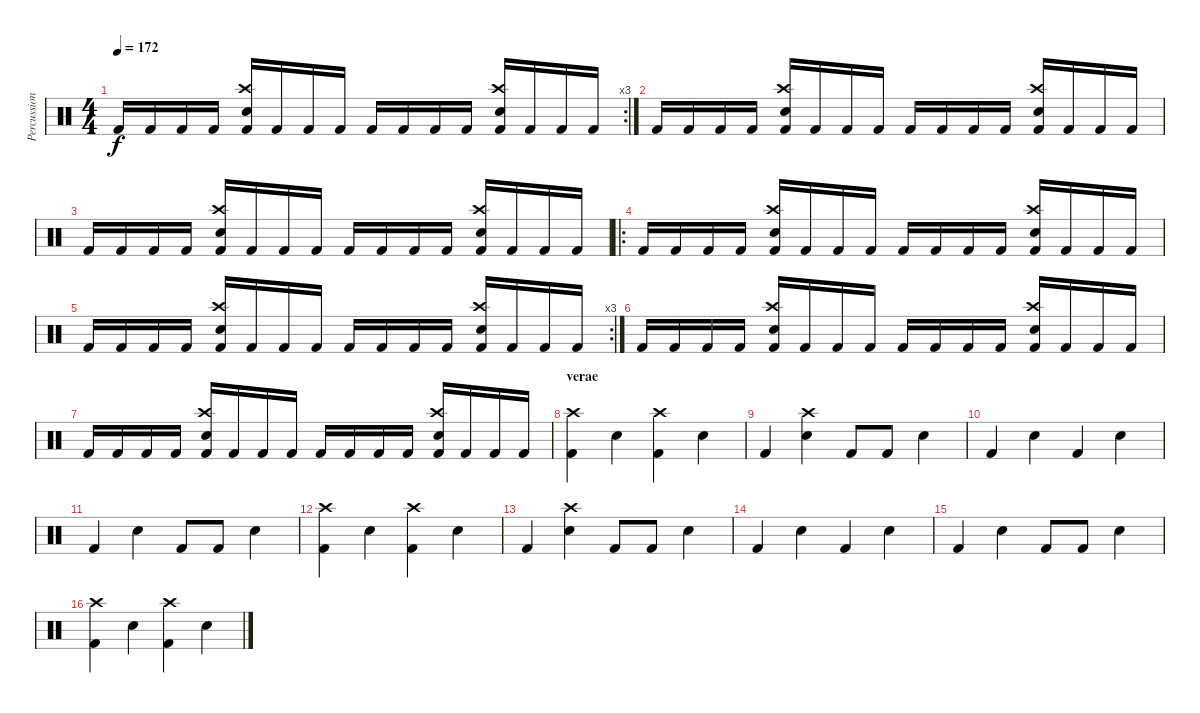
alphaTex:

\track ("Percussion" "Percussion") {instrument percussion}
\staff {score}
\articulation defaults
\rc 3
\ts (4 4)
\tempo 172
\clef neutral
\ks c "Kick (hit) 2".16{dy f} "Kick (hit) 2".16 "Kick (hit) 2".16 "Kick (hit) 2".16
("Crash high (hit)" "Electric Snare (hit)" "Kick (hit) 2").16 "Kick (hit) 2".16 "Kick (hit) 2".16 "Kick (hit) 2".16 "Kick (hit) 2".16 "Kick (hit) 2".16 "Kick (hit) 2".16 "Kick (hit) 2".16 ("Crash high (hit)" "Electric Snare (hit)" "Kick (hit) 2").16 "Kick (hit) 2".16 "Kick (hit) 2".16 "Kick (hit) 2".16 |
"Kick (hit) 2".16 "Kick (hit) 2".16 "Kick (hit) 2".16 "Kick (hit) 2".16 ("Crash high (hit)" "Electric Snare (hit)" "Kick (hit) 2").16 "Kick (hit) 2".16 "Kick (hit) 2".16 "Kick (hit) 2".16 "Kick (hit) 2".16 "Kick (hit) 2".16 "Kick (hit) 2".16 "Kick (hit) 2".16 ("Crash high (hit)" "Electric Snare (hit)" "Kick (hit) 2").16 "Kick (hit) 2".16 "Kick (hit) 2".16 "Kick (hit) 2".16 |
"Kick (hit) 2".16 "Kick (hit) 2".16 "Kick (hit) 2".16 "Kick (hit) 2".16 ("Crash high (hit)" "Electric Snare (hit)" "Kick (hit) 2").16 "Kick (hit) 2".16 "Kick (hit) 2".16 "Kick (hit) 2".16 "Kick (hit) 2".16 "Kick (hit) 2".16 "Kick (hit) 2".16 "Kick (hit) 2".16 ("Crash high (hit)" "Electric Snare (hit)" "Kick (hit) 2").16 "Kick (hit) 2".16 "Kick (hit) 2".16 "Kick (hit) 2".16 |
\ro "Kick (hit) 2".16 "Kick (hit) 2".16 "Kick (hit) 2".16 "Kick (hit) 2".16
("Crash high (hit)" "Electric Snare (hit)" "Kick (hit) 2").16 "Kick (hit) 2".16 "Kick (hit) 2".16 "Kick (hit) 2".16 "Kick (hit) 2".16 "Kick (hit) 2".16 "Kick (hit) 2".16 "Kick (hit) 2".16 ("Crash high (hit)" "Electric Snare (hit)" "Kick (hit) 2").16 "Kick (hit) 2".16 "Kick (hit) 2".16 "Kick (hit) 2".16 |
\rc 3 "Kick (hit) 2".16 "Kick (hit) 2".16 "Kick (hit) 2".16 "Kick (hit) 2".16
("Crash high (hit)" "Electric Snare (hit)" "Kick (hit) 2").16 "Kick (hit) 2".16 "Kick (hit) 2".16 "Kick (hit) 2".16 "Kick (hit) 2".16 "Kick (hit) 2".16 "Kick (hit) 2".16 "Kick (hit) 2".16 ("Crash high (hit)" "Electric Snare (hit)" "Kick (hit) 2").16 "Kick (hit) 2".16 "Kick (hit) 2".16 "Kick (hit) 2".16 |
"Kick (hit) 2".16 "Kick (hit) 2".16 "Kick (hit) 2".16 "Kick (hit) 2".16 ("Crash high (hit)" "Electric Snare (hit)" "Kick (hit) 2").16 "Kick (hit) 2".16 "Kick (hit) 2".16 "Kick (hit) 2".16 "Kick (hit) 2".16 "Kick (hit) 2".16 "Kick (hit) 2".16 "Kick (hit) 2".16 ("Crash high (hit)" "Electric Snare (hit)" "Kick (hit) 2").16 "Kick (hit) 2".16 "Kick (hit) 2".16 "Kick (hit) 2".16 |
"Kick (hit) 2".16 "Kick (hit) 2".16 "Kick (hit) 2".16 "Kick (hit) 2".16 ("Crash high (hit)" "Electric Snare (hit)" "Kick (hit) 2").16 "Kick (hit) 2".16 "Kick (hit) 2".16 "Kick (hit) 2".16 "Kick (hit) 2".16 "Kick (hit) 2".16 "Kick (hit) 2".16 "Kick (hit) 2".16 ("Crash high (hit)" "Electric Snare (hit)" "Kick (hit) 2").16 "Kick (hit) 2".16 "Kick (hit) 2".16 "Kick (hit) 2".16 |
\section ("" "verae")
("Crash high (hit)" "Kick (hit) 2").4 "Electric Snare (hit)".4 ("Crash high (hit)" "Kick (hit) 2").4 "Electric Snare (hit)".4 |
"Kick (hit) 2".4 ("Crash high (hit)" "Electric Snare (hit)").4 "Kick (hit) 2".8 "Kick (hit) 2".8 "Electric Snare (hit)".4 |
"Kick (hit) 2".4 "Electric Snare (hit)".4 "Kick (hit) 2".4 "Electric Snare (hit)".4 |
"Kick (hit) 2".4 "Electric Snare (hit)".4 "Kick (hit) 2".8 "Kick (hit) 2".8 "Electric Snare (hit)".4 |
("Crash high (hit)" "Kick (hit) 2").4 "Electric Snare (hit)".4 ("Crash high (hit)" "Kick (hit) 2").4 "Electric Snare (hit)".4 |
"Kick (hit) 2".4 ("Crash high (hit)" "Electric Snare (hit)").4 "Kick (hit) 2".8 "Kick (hit) 2".8 "Electric Snare (hit)".4 |
"Kick (hit) 2".4 "Electric Snare (hit)".4 "Kick (hit) 2".4 "Electric Snare (hit)".4 |
"Kick (hit) 2".4 "Electric Snare (hit)".4 "Kick (hit) 2".8 "Kick (hit) 2".8 "Electric Snare (hit)".4 |
("Crash high (hit)" "Kick (hit) 2").4 "Electric Snare (hit)".4 ("Crash high (hit)" "Kick (hit) 2").4 "Electric Snare (hit)".4
